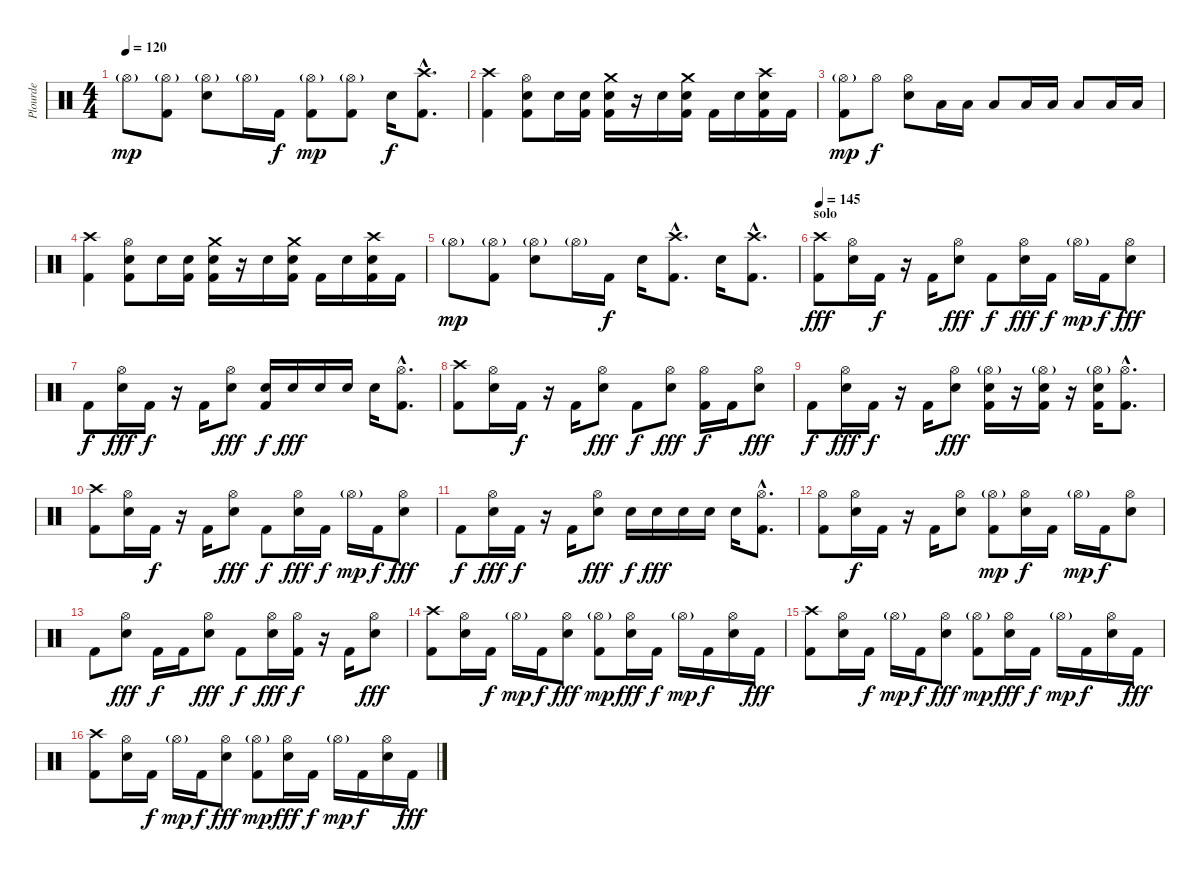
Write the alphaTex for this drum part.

\track ("Plourde" "Plourde") {instrument percussion}
\staff {score}
\articulation defaults
\ts (4 4)
\tempo 120
\clef neutral
\ks c "Hi-Hat (open)"{g}.8{dy mp}
("Hi-Hat (open)"{g} "Kick (hit) 2").8 ("Hi-Hat (open)"{g} "Electric Snare (hit)").8 "Hi-Hat (open)"{g}.16 "Kick (hit) 2".16{dy f} ("Hi-Hat (open)"{g} "Kick (hit) 2").8{dy mp} ("Hi-Hat (open)"{g} "Kick (hit) 2").8 "Electric Snare (hit)".16{dy f} ("Crash high (hit)"{hac} "Kick (hit) 2"{hac}).8{d} |
("Crash high (hit)" "Kick (hit) 2").4 ("Hi-Hat (open)" "Electric Snare (hit)" "Kick (hit) 2").8 "Electric Snare (hit)".16 ("Electric Snare (hit)" "Kick (hit) 2").16 ("Crash medium (hit)" "Electric Snare (hit)" "Kick (hit) 2").16 r.16 "Electric Snare (hit)".16 ("Crash medium (hit)" "Electric Snare (hit)" "Kick (hit) 2").16 "Kick (hit) 2".16 "Electric Snare (hit)".16 ("Crash high (hit)" "Electric Snare (hit)" "Kick (hit) 2").16 "Kick (hit) 2".16 |
("Hi-Hat (open)"{g} "Kick (hit) 2").8{dy mp} "Hi-Hat (open)".8{dy f} ("Hi-Hat (open)" "Electric Snare (hit)").8 "Low Tom (hit)".16 "Low Tom (hit)".16 "Low Tom (hit)".8 "Low Tom (hit)".16 "Low Tom (hit)".16 "Low Tom (hit)".8 "Low Tom (hit)".16 "Low Tom (hit)".16 |
("Crash high (hit)" "Kick (hit) 2").4 ("Hi-Hat (open)" "Electric Snare (hit)" "Kick (hit) 2").8 "Electric Snare (hit)".16 ("Electric Snare (hit)" "Kick (hit) 2").16 ("Crash medium (hit)" "Electric Snare (hit)" "Kick (hit) 2").16 r.16 "Electric Snare (hit)".16 ("Crash medium (hit)" "Electric Snare (hit)" "Kick (hit) 2").16 "Kick (hit) 2".16 "Electric Snare (hit)".16 ("Crash high (hit)" "Electric Snare (hit)" "Kick (hit) 2").16 "Kick (hit) 2".16 |
"Hi-Hat (open)"{g}.8{dy mp} ("Hi-Hat (open)"{g} "Kick (hit) 2").8 ("Hi-Hat (open)"{g} "Electric Snare (hit)").8 "Hi-Hat (open)"{g}.16 "Kick (hit) 2".16{dy f} "Electric Snare (hit)".16 ("Crash high (hit)"{hac} "Kick (hit) 2"{hac}).8{d} "Electric Snare (hit)".16 ("Crash high (hit)"{hac} "Kick (hit) 2"{hac}).8{d} |
\section ("" "solo")
\tempo 145
("Crash high (hit)" "Kick (hit) 2").8{dy fff} ("Hi-Hat (open)" "Electric Snare (hit)").16 "Kick (hit) 2".16{dy f} r.16 "Kick (hit) 2".16 ("Hi-Hat (open)" "Electric Snare (hit)").8{dy fff} "Kick (hit) 2".8{dy f} ("Hi-Hat (open)" "Electric Snare (hit)").16{dy fff} "Kick (hit) 2".16{dy f} "Hi-Hat (open)"{g}.16{dy mp} "Kick (hit) 2".16{dy f} ("Hi-Hat (open)" "Electric Snare (hit)").8{dy fff} |
"Kick (hit) 2".8{dy f} ("Hi-Hat (open)" "Electric Snare (hit)").16{dy fff} "Kick (hit) 2".16{dy f} r.16 "Kick (hit) 2".16 ("Hi-Hat (open)" "Electric Snare (hit)").8{dy fff} ("Electric Snare (hit)" "Kick (hit) 2").16{dy f} "Electric Snare (hit)".16{dy fff} "Electric Snare (hit)".16 "Electric Snare (hit)".16 "Electric Snare (hit)".16 ("Hi-Hat (open)"{hac} "Kick (hit) 2"{hac}).8{d} |
("Crash high (hit)" "Kick (hit) 2").8 ("Hi-Hat (open)" "Electric Snare (hit)").16 "Kick (hit) 2".16{dy f} r.16 "Kick (hit) 2".16 ("Hi-Hat (open)" "Electric Snare (hit)").8{dy fff} "Kick (hit) 2".8{dy f} ("Hi-Hat (open)" "Electric Snare (hit)").8{dy fff} ("Hi-Hat (open)" "Kick (hit) 2").16{dy f} "Kick (hit) 2".16 ("Hi-Hat (open)" "Electric Snare (hit)").8{dy fff} |
"Kick (hit) 2".8{dy f} ("Hi-Hat (open)" "Electric Snare (hit)").16{dy fff} "Kick (hit) 2".16{dy f} r.16 "Kick (hit) 2".16 ("Hi-Hat (open)" "Electric Snare (hit)").8{dy fff} ("Hi-Hat (open)"{g} "Electric Snare (hit)" "Kick (hit) 2").16 r.16 ("Hi-Hat (open)"{g} "Electric Snare (hit)" "Kick (hit) 2").16 r.16 ("Hi-Hat (open)"{g} "Electric Snare (hit)" "Kick (hit) 2").16 ("Hi-Hat (open)"{hac} "Kick (hit) 2"{hac}).8{d} |
("Crash high (hit)" "Kick (hit) 2").8 ("Hi-Hat (open)" "Electric Snare (hit)").16 "Kick (hit) 2".16{dy f} r.16 "Kick (hit) 2".16 ("Hi-Hat (open)" "Electric Snare (hit)").8{dy fff} "Kick (hit) 2".8{dy f} ("Hi-Hat (open)" "Electric Snare (hit)").16{dy fff} "Kick (hit) 2".16{dy f} "Hi-Hat (open)"{g}.16{dy mp} "Kick (hit) 2".16{dy f} ("Hi-Hat (open)" "Electric Snare (hit)").8{dy fff} |
"Kick (hit) 2".8{dy f} ("Hi-Hat (open)" "Electric Snare (hit)").16{dy fff} "Kick (hit) 2".16{dy f} r.16 "Kick (hit) 2".16 ("Hi-Hat (open)" "Electric Snare (hit)").8{dy fff} "Electric Snare (hit)".16{dy f} "Electric Snare (hit)".16{dy fff} "Electric Snare (hit)".16 "Electric Snare (hit)".16 "Electric Snare (hit)".16 ("Hi-Hat (open)"{hac} "Kick (hit) 2"{hac}).8{d} |
("Hi-Hat (open)" "Kick (hit) 2").8 ("Hi-Hat (open)" "Electric Snare (hit)").16{dy f} "Kick (hit) 2".16 r.16 "Kick (hit) 2".16 ("Hi-Hat (open)" "Electric Snare (hit)").8 ("Hi-Hat (open)"{g} "Kick (hit) 2").8{dy mp} ("Hi-Hat (open)" "Electric Snare (hit)").16{dy f} "Kick (hit) 2".16 "Hi-Hat (open)"{g}.16{dy mp} "Kick (hit) 2".16{dy f} ("Hi-Hat (open)" "Electric Snare (hit)").8 |
"Kick (hit) 2".8 ("Hi-Hat (open)" "Electric Snare (hit)").8{dy fff} "Kick (hit) 2".16{dy f} "Kick (hit) 2".16 ("Hi-Hat (open)" "Electric Snare (hit)").8{dy fff} "Kick (hit) 2".8{dy f} ("Hi-Hat (open)" "Electric Snare (hit)").16{dy fff} ("Hi-Hat (open)" "Kick (hit) 2").16{dy f} r.16 "Kick (hit) 2".16 ("Hi-Hat (open)" "Electric Snare (hit)").8{dy fff} |
("Crash high (hit)" "Kick (hit) 2").8 ("Hi-Hat (open)" "Electric Snare (hit)").16 "Kick (hit) 2".16{dy f} "Hi-Hat (open)"{g}.16{dy mp} "Kick (hit) 2".16{dy f} ("Hi-Hat (open)" "Electric Snare (hit)").8{dy fff} ("Hi-Hat (open)"{g} "Kick (hit) 2").8{dy mp} ("Hi-Hat (open)" "Electric Snare (hit)").16{dy fff} "Kick (hit) 2".16{dy f} "Hi-Hat (open)"{g}.16{dy mp} "Kick (hit) 2".16{dy f} ("Hi-Hat (open)" "Electric Snare (hit)").16 "Kick (hit) 2".16{dy fff} |
("Crash high (hit)" "Kick (hit) 2").8 ("Hi-Hat (open)" "Electric Snare (hit)").16 "Kick (hit) 2".16{dy f} "Hi-Hat (open)"{g}.16{dy mp} "Kick (hit) 2".16{dy f} ("Hi-Hat (open)" "Electric Snare (hit)").8{dy fff} ("Hi-Hat (open)"{g} "Kick (hit) 2").8{dy mp} ("Hi-Hat (open)" "Electric Snare (hit)").16{dy fff} "Kick (hit) 2".16{dy f} "Hi-Hat (open)"{g}.16{dy mp} "Kick (hit) 2".16{dy f} ("Hi-Hat (open)" "Electric Snare (hit)").16 "Kick (hit) 2".16{dy fff} |
("Crash high (hit)" "Kick (hit) 2").8 ("Hi-Hat (open)" "Electric Snare (hit)").16 "Kick (hit) 2".16{dy f} "Hi-Hat (open)"{g}.16{dy mp} "Kick (hit) 2".16{dy f} ("Hi-Hat (open)" "Electric Snare (hit)").8{dy fff} ("Hi-Hat (open)"{g} "Kick (hit) 2").8{dy mp} ("Hi-Hat (open)" "Electric Snare (hit)").16{dy fff} "Kick (hit) 2".16{dy f} "Hi-Hat (open)"{g}.16{dy mp} "Kick (hit) 2".16{dy f} ("Hi-Hat (open)" "Electric Snare (hit)").16 "Kick (hit) 2".16{dy fff}
